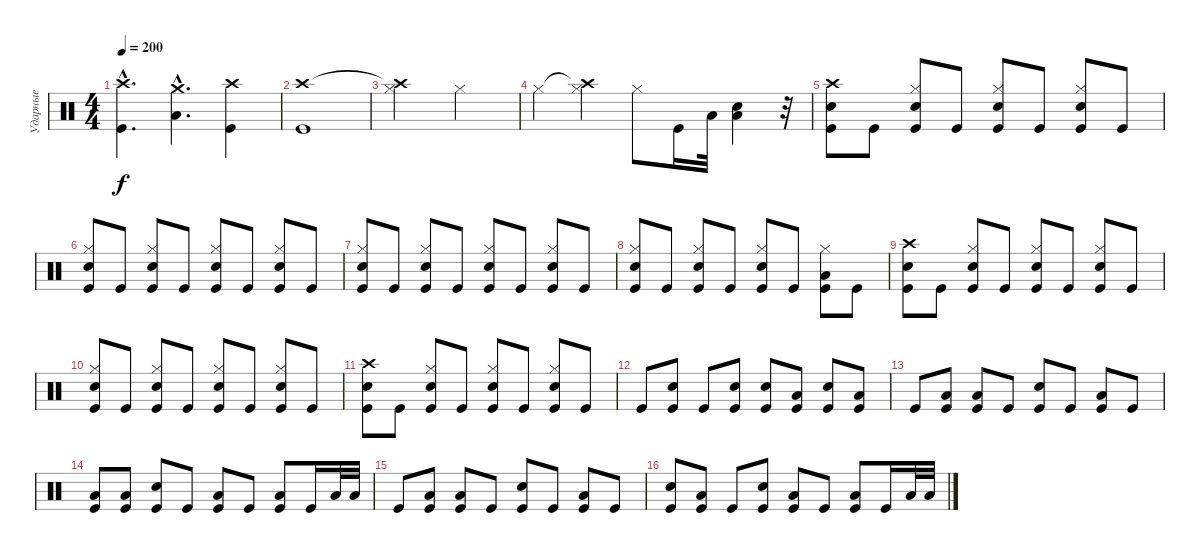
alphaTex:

\track ("Ударные" "Ударные") {instrument percussion}
\staff {score}
\articulation defaults
\ts (4 4)
\tempo 200
\clef neutral
\ks c
("Crash high (hit)"{hac} "Kick (hit)"{hac}).4{d dy f} ("Crash medium (hit)"{hac} "Low Tom (hit)"{hac}).4{d} ("Crash high (hit)" "Kick (hit)").4 |
("Crash high (hit)" "Kick (hit)").1 |
("Crash high (hit)"{t} "Hi-Hat (closed)").2 "Hi-Hat (closed)".2 |
"Hi-Hat (closed)".4 ("Crash high (hit)"{t} "Hi-Hat (closed)").4 "Hi-Hat (closed)".8 "Kick (hit)".16 "Low Tom (hit)".32 ("Low Tom (hit)" "Electric Snare (hit)").4 r.32 |
("Crash high (hit)" "Electric Snare (hit)" "Kick (hit)").8 "Kick (hit)".8 ("Hi-Hat (closed)" "Electric Snare (hit)" "Kick (hit)").8 "Kick (hit)".8 ("Hi-Hat (closed)" "Electric Snare (hit)" "Kick (hit)").8 "Kick (hit)".8 ("Hi-Hat (closed)" "Electric Snare (hit)" "Kick (hit)").8 "Kick (hit)".8 |
("Hi-Hat (closed)" "Electric Snare (hit)" "Kick (hit)").8 "Kick (hit)".8 ("Hi-Hat (closed)" "Electric Snare (hit)" "Kick (hit)").8 "Kick (hit)".8 ("Hi-Hat (closed)" "Electric Snare (hit)" "Kick (hit)").8 "Kick (hit)".8 ("Hi-Hat (closed)" "Electric Snare (hit)" "Kick (hit)").8 "Kick (hit)".8 |
("Hi-Hat (closed)" "Electric Snare (hit)" "Kick (hit)").8 "Kick (hit)".8 ("Hi-Hat (closed)" "Electric Snare (hit)" "Kick (hit)").8 "Kick (hit)".8 ("Hi-Hat (closed)" "Electric Snare (hit)" "Kick (hit)").8 "Kick (hit)".8 ("Hi-Hat (closed)" "Electric Snare (hit)" "Kick (hit)").8 "Kick (hit)".8 |
("Hi-Hat (closed)" "Electric Snare (hit)" "Kick (hit)").8 "Kick (hit)".8 ("Hi-Hat (closed)" "Electric Snare (hit)" "Kick (hit)").8 "Kick (hit)".8 ("Hi-Hat (closed)" "Electric Snare (hit)" "Kick (hit)").8 "Kick (hit)".8 ("Hi-Hat (closed)" "Low Tom (hit)" "Kick (hit)").8 "Kick (hit)".8 |
("Crash high (hit)" "Electric Snare (hit)" "Kick (hit)").8 "Kick (hit)".8 ("Hi-Hat (closed)" "Electric Snare (hit)" "Kick (hit)").8 "Kick (hit)".8 ("Hi-Hat (closed)" "Electric Snare (hit)" "Kick (hit)").8 "Kick (hit)".8 ("Hi-Hat (closed)" "Electric Snare (hit)" "Kick (hit)").8 "Kick (hit)".8 |
("Hi-Hat (closed)" "Electric Snare (hit)" "Kick (hit)").8 "Kick (hit)".8 ("Hi-Hat (closed)" "Electric Snare (hit)" "Kick (hit)").8 "Kick (hit)".8 ("Hi-Hat (closed)" "Electric Snare (hit)" "Kick (hit)").8 "Kick (hit)".8 ("Hi-Hat (closed)" "Electric Snare (hit)" "Kick (hit)").8 "Kick (hit)".8 |
("Crash high (hit)" "Electric Snare (hit)" "Kick (hit)").8 "Kick (hit)".8 ("Hi-Hat (closed)" "Electric Snare (hit)" "Kick (hit)").8 "Kick (hit)".8 ("Hi-Hat (closed)" "Electric Snare (hit)" "Kick (hit)").8 "Kick (hit)".8 ("Hi-Hat (closed)" "Electric Snare (hit)" "Kick (hit)").8 "Kick (hit)".8 |
"Kick (hit)".8 ("Electric Snare (hit)" "Kick (hit)").8 "Kick (hit)".8 ("Electric Snare (hit)" "Kick (hit)").8 ("Electric Snare (hit)" "Kick (hit)").8 ("Low Tom (hit)" "Kick (hit)").8 ("Electric Snare (hit)" "Kick (hit)").8 ("Low Tom (hit)" "Kick (hit)").8 |
"Kick (hit)".8 ("Low Tom (hit)" "Kick (hit)").8 ("Low Tom (hit)" "Kick (hit)").8 "Kick (hit)".8 ("Electric Snare (hit)" "Kick (hit)").8 "Kick (hit)".8 ("Low Tom (hit)" "Kick (hit)").8 "Kick (hit)".8 |
("Low Tom (hit)" "Kick (hit)").8 ("Low Tom (hit)" "Kick (hit)").8 ("Electric Snare (hit)" "Kick (hit)").8 "Kick (hit)".8 ("Low Tom (hit)" "Kick (hit)").8 "Kick (hit)".8 ("Low Tom (hit)" "Kick (hit)").8 "Kick (hit)".16 "Low Tom (hit)".32 "Low Tom (hit)".32 |
"Kick (hit)".8 ("Low Tom (hit)" "Kick (hit)").8 ("Low Tom (hit)" "Kick (hit)").8 "Kick (hit)".8 ("Electric Snare (hit)" "Kick (hit)").8 "Kick (hit)".8 ("Low Tom (hit)" "Kick (hit)").8 "Kick (hit)".8 |
("Electric Snare (hit)" "Kick (hit)").8 ("Low Tom (hit)" "Kick (hit)").8 "Kick (hit)".8 ("Electric Snare (hit)" "Kick (hit)").8 ("Low Tom (hit)" "Kick (hit)").8 "Kick (hit)".8 ("Low Tom (hit)" "Kick (hit)").8 "Kick (hit)".16 "Low Tom (hit)".32 "Low Tom (hit)".32
